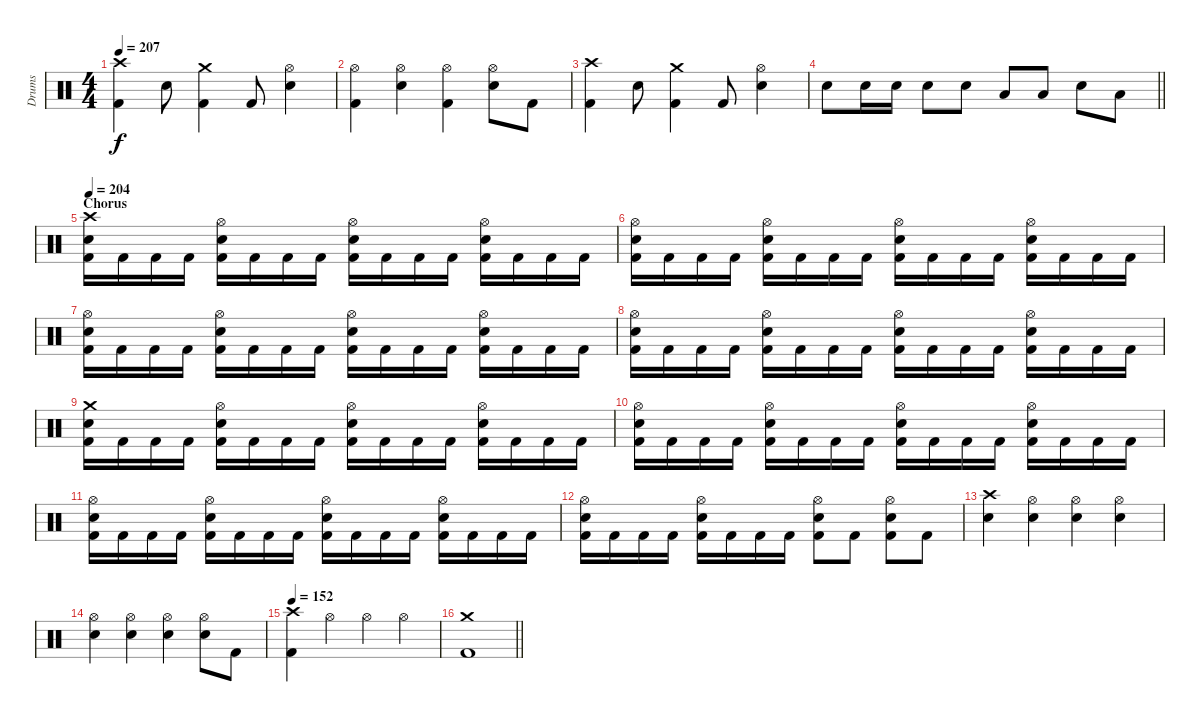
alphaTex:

\track ("Drums" "Drums") {instrument percussion}
\staff {score}
\articulation defaults
\ts (4 4)
\tempo 207
\clef neutral
\ks c
("Crash high (hit)" "Kick (hit) 2").4{dy f} "Snare (hit) 2".8 ("Crash medium (hit)" "Kick (hit) 2").4 "Kick (hit) 2".8 ("Hi-Hat (open)" "Snare (hit) 2").4 |
("Hi-Hat (open)" "Kick (hit) 2").4 ("Hi-Hat (open)" "Snare (hit) 2").4 ("Hi-Hat (open)" "Kick (hit) 2").4 ("Hi-Hat (open)" "Snare (hit) 2").8 "Kick (hit) 2".8 |
("Crash high (hit)" "Kick (hit) 2").4 "Snare (hit) 2".8 ("Crash medium (hit)" "Kick (hit) 2").4 "Kick (hit) 2".8 ("Hi-Hat (open)" "Snare (hit) 2").4 |
\barLineRight lightlight "Snare (hit) 2".8 "Snare (hit) 2".16 "Snare (hit) 2".16 "Snare (hit) 2".8 "Snare (hit) 2".8 "Low Tom (hit)".8 "Low Tom (hit)".8 "Snare (hit) 2".8 "Low Tom (hit)".8
|
\section ("" "Chorus")
\tempo 204
("Crash high (hit)" "Snare (hit) 2" "Kick (hit) 2").16 "Kick (hit) 2".16 "Kick (hit) 2".16 "Kick (hit) 2".16 ("Hi-Hat (open)" "Snare (hit) 2" "Kick (hit) 2").16 "Kick (hit) 2".16 "Kick (hit) 2".16 "Kick (hit) 2".16 ("Hi-Hat (open)" "Snare (hit) 2" "Kick (hit) 2").16 "Kick (hit) 2".16 "Kick (hit) 2".16 "Kick (hit) 2".16 ("Hi-Hat (open)" "Snare (hit) 2" "Kick (hit) 2").16 "Kick (hit) 2".16 "Kick (hit) 2".16 "Kick (hit) 2".16 |
("Hi-Hat (open)" "Snare (hit) 2" "Kick (hit) 2").16 "Kick (hit) 2".16 "Kick (hit) 2".16 "Kick (hit) 2".16 ("Hi-Hat (open)" "Snare (hit) 2" "Kick (hit) 2").16 "Kick (hit) 2".16 "Kick (hit) 2".16 "Kick (hit) 2".16 ("Hi-Hat (open)" "Snare (hit) 2" "Kick (hit) 2").16 "Kick (hit) 2".16 "Kick (hit) 2".16 "Kick (hit) 2".16 ("Hi-Hat (open)" "Snare (hit) 2" "Kick (hit) 2").16 "Kick (hit) 2".16 "Kick (hit) 2".16 "Kick (hit) 2".16 |
("Hi-Hat (open)" "Snare (hit) 2" "Kick (hit) 2").16 "Kick (hit) 2".16 "Kick (hit) 2".16 "Kick (hit) 2".16 ("Hi-Hat (open)" "Snare (hit) 2" "Kick (hit) 2").16 "Kick (hit) 2".16 "Kick (hit) 2".16 "Kick (hit) 2".16 ("Hi-Hat (open)" "Snare (hit) 2" "Kick (hit) 2").16 "Kick (hit) 2".16 "Kick (hit) 2".16 "Kick (hit) 2".16 ("Hi-Hat (open)" "Snare (hit) 2" "Kick (hit) 2").16 "Kick (hit) 2".16 "Kick (hit) 2".16 "Kick (hit) 2".16 |
("Hi-Hat (open)" "Snare (hit) 2" "Kick (hit) 2").16 "Kick (hit) 2".16 "Kick (hit) 2".16 "Kick (hit) 2".16 ("Hi-Hat (open)" "Snare (hit) 2" "Kick (hit) 2").16 "Kick (hit) 2".16 "Kick (hit) 2".16 "Kick (hit) 2".16 ("Hi-Hat (open)" "Snare (hit) 2" "Kick (hit) 2").16 "Kick (hit) 2".16 "Kick (hit) 2".16 "Kick (hit) 2".16 ("Hi-Hat (open)" "Snare (hit) 2" "Kick (hit) 2").16 "Kick (hit) 2".16 "Kick (hit) 2".16 "Kick (hit) 2".16 |
("Crash medium (hit)" "Snare (hit) 2" "Kick (hit) 2").16 "Kick (hit) 2".16 "Kick (hit) 2".16 "Kick (hit) 2".16 ("Hi-Hat (open)" "Snare (hit) 2" "Kick (hit) 2").16 "Kick (hit) 2".16 "Kick (hit) 2".16 "Kick (hit) 2".16 ("Hi-Hat (open)" "Snare (hit) 2" "Kick (hit) 2").16 "Kick (hit) 2".16 "Kick (hit) 2".16 "Kick (hit) 2".16 ("Hi-Hat (open)" "Snare (hit) 2" "Kick (hit) 2").16 "Kick (hit) 2".16 "Kick (hit) 2".16 "Kick (hit) 2".16 |
("Hi-Hat (open)" "Snare (hit) 2" "Kick (hit) 2").16 "Kick (hit) 2".16 "Kick (hit) 2".16 "Kick (hit) 2".16 ("Hi-Hat (open)" "Snare (hit) 2" "Kick (hit) 2").16 "Kick (hit) 2".16 "Kick (hit) 2".16 "Kick (hit) 2".16 ("Hi-Hat (open)" "Snare (hit) 2" "Kick (hit) 2").16 "Kick (hit) 2".16 "Kick (hit) 2".16 "Kick (hit) 2".16 ("Hi-Hat (open)" "Snare (hit) 2" "Kick (hit) 2").16 "Kick (hit) 2".16 "Kick (hit) 2".16 "Kick (hit) 2".16 |
("Hi-Hat (open)" "Snare (hit) 2" "Kick (hit) 2").16 "Kick (hit) 2".16 "Kick (hit) 2".16 "Kick (hit) 2".16 ("Hi-Hat (open)" "Snare (hit) 2" "Kick (hit) 2").16 "Kick (hit) 2".16 "Kick (hit) 2".16 "Kick (hit) 2".16 ("Hi-Hat (open)" "Snare (hit) 2" "Kick (hit) 2").16 "Kick (hit) 2".16 "Kick (hit) 2".16 "Kick (hit) 2".16 ("Hi-Hat (open)" "Snare (hit) 2" "Kick (hit) 2").16 "Kick (hit) 2".16 "Kick (hit) 2".16 "Kick (hit) 2".16 |
("Hi-Hat (open)" "Snare (hit) 2" "Kick (hit) 2").16 "Kick (hit) 2".16 "Kick (hit) 2".16 "Kick (hit) 2".16 ("Hi-Hat (open)" "Snare (hit) 2" "Kick (hit) 2").16 "Kick (hit) 2".16 "Kick (hit) 2".16 "Kick (hit) 2".16 ("Hi-Hat (open)" "Snare (hit) 2" "Kick (hit) 2").8 "Kick (hit) 2".8 ("Hi-Hat (open)" "Snare (hit) 2" "Kick (hit) 2").8 "Kick (hit) 2".8 |
("Crash high (hit)" "Snare (hit) 2").4 ("Hi-Hat (open)" "Snare (hit) 2").4 ("Hi-Hat (open)" "Snare (hit) 2").4 ("Hi-Hat (open)" "Snare (hit) 2").4 |
("Hi-Hat (open)" "Snare (hit) 2").4 ("Hi-Hat (open)" "Snare (hit) 2").4 ("Hi-Hat (open)" "Snare (hit) 2").4 ("Hi-Hat (open)" "Snare (hit) 2").8 "Kick (hit) 2".8 |
\tempo 152
("Crash high (hit)" "Kick (hit) 2").4 "Hi-Hat (open)".4 "Hi-Hat (open)".4 "Hi-Hat (open)".4 |
\barLineRight lightlight
("Crash medium (hit)" "Kick (hit) 2").1
